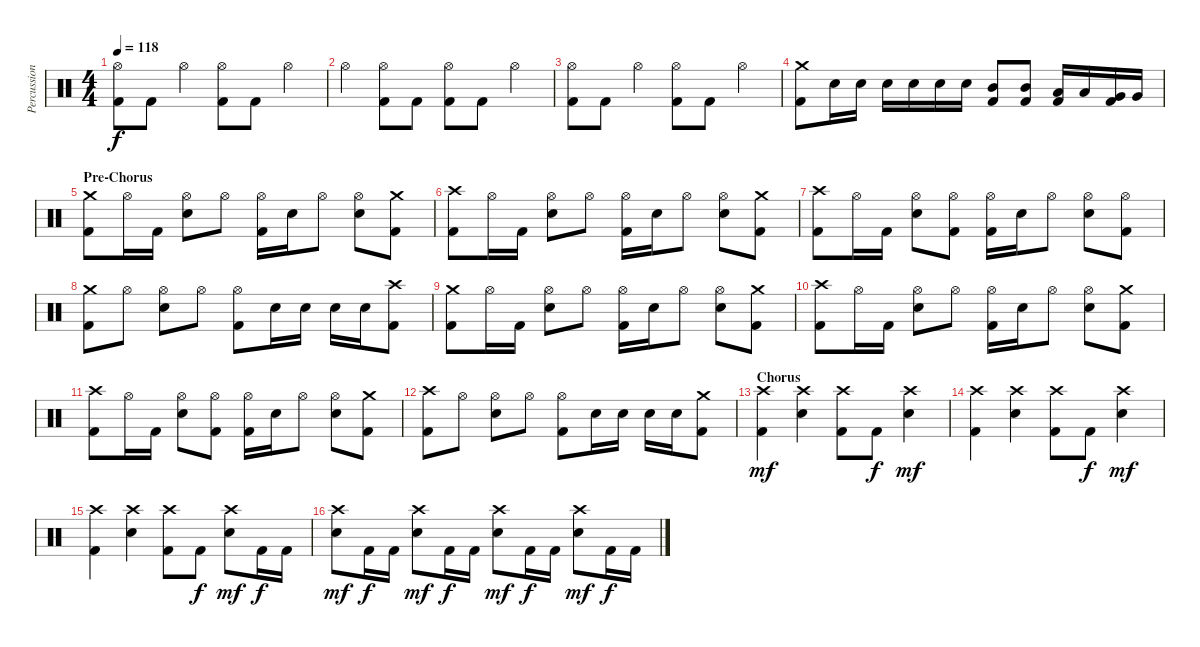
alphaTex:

\track ("Percussion" "Percussion") {instrument percussion}
\staff {score}
\articulation defaults
\ts (4 4)
\tempo 118
\clef neutral
\ks c
("Kick (hit) 2" "Hi-Hat (open)").8{dy f} "Kick (hit) 2".8 "Hi-Hat (open)".4 ("Kick (hit) 2" "Hi-Hat (open)").8 "Kick (hit) 2".8 "Hi-Hat (open)".4 |
"Hi-Hat (open)".4 ("Kick (hit) 2" "Hi-Hat (open)").8 "Kick (hit) 2".8 ("Kick (hit) 2" "Hi-Hat (open)").8 "Kick (hit) 2".8 "Hi-Hat (open)".4 |
("Kick (hit) 2" "Hi-Hat (open)").8 "Kick (hit) 2".8 "Hi-Hat (open)".4 ("Kick (hit) 2" "Hi-Hat (open)").8 "Kick (hit) 2".8 "Hi-Hat (open)".4 |
("Kick (hit) 2" "Crash medium (hit)").8 "Electric Snare (hit)".16 "Electric Snare (hit)".16 "Electric Snare (hit)".16 "Electric Snare (hit)".16 "Electric Snare (hit)".16 "Electric Snare (hit)".16 ("Kick (hit) 2" "Mid Tom (hit)").8 ("Kick (hit) 2" "Mid Tom (hit)").8 ("Kick (hit) 2" "Low Tom (hit)").16 "Low Tom (hit)".16 ("Kick (hit) 2" "Very Low Tom (hit)").16 "Very Low Tom (hit)".16 |
\section ("" "Pre-Chorus")
("Kick (hit) 2" "Crash medium (hit)").8 "Hi-Hat (open)".16 "Kick (hit) 2".16 ("Electric Snare (hit)" "Hi-Hat (open)").8 "Hi-Hat (open)".8 ("Kick (hit) 2" "Hi-Hat (open)").16 "Electric Snare (hit)".16 "Hi-Hat (open)".8 ("Electric Snare (hit)" "Hi-Hat (open)").8 ("Kick (hit) 2" "Crash medium (hit)").8 |
("Kick (hit) 2" "Crash high (hit)").8 "Hi-Hat (open)".16 "Kick (hit) 2".16 ("Electric Snare (hit)" "Hi-Hat (open)").8 "Hi-Hat (open)".8 ("Kick (hit) 2" "Hi-Hat (open)").16 "Electric Snare (hit)".16 "Hi-Hat (open)".8 ("Electric Snare (hit)" "Hi-Hat (open)").8 ("Kick (hit) 2" "Crash medium (hit)").8 |
("Kick (hit) 2" "Crash high (hit)").8 "Hi-Hat (open)".16 "Kick (hit) 2".16 ("Electric Snare (hit)" "Hi-Hat (open)").8 ("Kick (hit) 2" "Hi-Hat (open)").8 ("Kick (hit) 2" "Hi-Hat (open)").16 "Electric Snare (hit)".16 "Hi-Hat (open)".8 ("Electric Snare (hit)" "Hi-Hat (open)").8 ("Kick (hit) 2" "Hi-Hat (open)").8 |
("Kick (hit) 2" "Crash medium (hit)").8 "Hi-Hat (open)".8 ("Electric Snare (hit)" "Hi-Hat (open)").8 "Hi-Hat (open)".8 ("Kick (hit) 2" "Hi-Hat (open)").8 "Electric Snare (hit)".16 "Electric Snare (hit)".16 "Electric Snare (hit)".16 "Electric Snare (hit)".16 ("Kick (hit) 2" "Crash high (hit)").8 |
("Kick (hit) 2" "Crash medium (hit)").8 "Hi-Hat (open)".16 "Kick (hit) 2".16 ("Electric Snare (hit)" "Hi-Hat (open)").8 "Hi-Hat (open)".8 ("Kick (hit) 2" "Hi-Hat (open)").16 "Electric Snare (hit)".16 "Hi-Hat (open)".8 ("Electric Snare (hit)" "Hi-Hat (open)").8 ("Kick (hit) 2" "Crash medium (hit)").8 |
("Kick (hit) 2" "Crash high (hit)").8 "Hi-Hat (open)".16 "Kick (hit) 2".16 ("Electric Snare (hit)" "Hi-Hat (open)").8 "Hi-Hat (open)".8 ("Kick (hit) 2" "Hi-Hat (open)").16 "Electric Snare (hit)".16 "Hi-Hat (open)".8 ("Electric Snare (hit)" "Hi-Hat (open)").8 ("Kick (hit) 2" "Crash medium (hit)").8 |
("Kick (hit) 2" "Crash high (hit)").8 "Hi-Hat (open)".16 "Kick (hit) 2".16 ("Electric Snare (hit)" "Hi-Hat (open)").8 ("Kick (hit) 2" "Hi-Hat (open)").8 ("Kick (hit) 2" "Hi-Hat (open)").16 "Electric Snare (hit)".16 "Hi-Hat (open)".8 ("Electric Snare (hit)" "Hi-Hat (open)").8 ("Kick (hit) 2" "Crash medium (hit)").8 |
("Kick (hit) 2" "Crash high (hit)").8 "Hi-Hat (open)".8 ("Electric Snare (hit)" "Hi-Hat (open)").8 "Hi-Hat (open)".8 ("Kick (hit) 2" "Hi-Hat (open)").8 "Electric Snare (hit)".16 "Electric Snare (hit)".16 "Electric Snare (hit)".16 "Electric Snare (hit)".16 ("Kick (hit) 2" "Crash medium (hit)").8 |
\section ("" "Chorus")
("Kick (hit) 2" "Crash high (hit)").4{dy mf} ("Electric Snare (hit)" "Crash high (hit)").4 ("Kick (hit) 2" "Crash high (hit)").8 "Kick (hit) 2".8{dy f} ("Electric Snare (hit)" "Crash high (hit)").4{dy mf} |
("Kick (hit) 2" "Crash high (hit)").4 ("Electric Snare (hit)" "Crash high (hit)").4 ("Kick (hit) 2" "Crash high (hit)").8 "Kick (hit) 2".8{dy f} ("Electric Snare (hit)" "Crash high (hit)").4{dy mf} |
("Kick (hit) 2" "Crash high (hit)").4 ("Electric Snare (hit)" "Crash high (hit)").4 ("Kick (hit) 2" "Crash high (hit)").8 "Kick (hit) 2".8{dy f} ("Electric Snare (hit)" "Crash high (hit)").8{dy mf} "Kick (hit) 2".16{dy f} "Kick (hit) 2".16 |
("Electric Snare (hit)" "Crash high (hit)").8{dy mf} "Kick (hit) 2".16{dy f} "Kick (hit) 2".16 ("Electric Snare (hit)" "Crash high (hit)").8{dy mf} "Kick (hit) 2".16{dy f} "Kick (hit) 2".16 ("Electric Snare (hit)" "Crash high (hit)").8{dy mf} "Kick (hit) 2".16{dy f} "Kick (hit) 2".16 ("Electric Snare (hit)" "Crash high (hit)").8{dy mf} "Kick (hit) 2".16{dy f} "Kick (hit) 2".16
